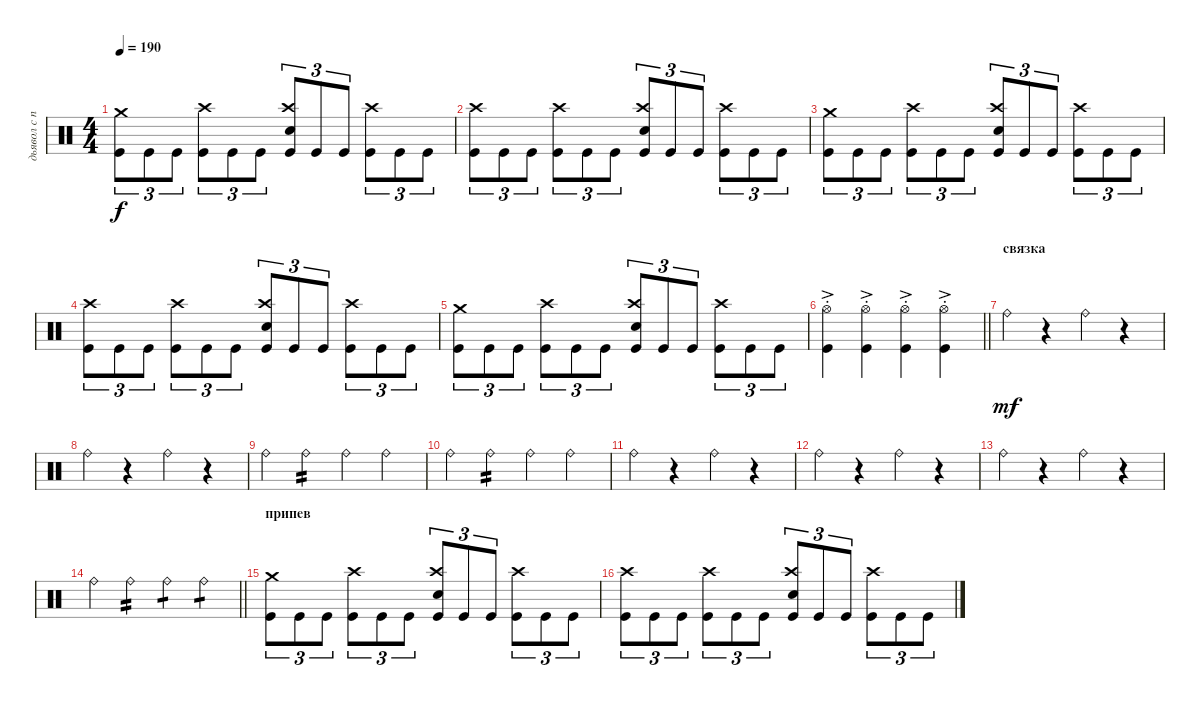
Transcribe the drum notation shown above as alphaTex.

\track ("дьявол с палками" "дьявол с п") {instrument percussion}
\staff {score}
\articulation defaults
\ts (4 4)
\tempo 190
\clef neutral
\ks c
("Kick (hit)" "Crash medium (hit)").8{tu (3 2) dy f} "Kick (hit)".8{tu (3 2)} "Kick (hit)".8{tu (3 2)} ("Kick (hit)" "Crash high (hit)").8{tu (3 2)} "Kick (hit)".8{tu (3 2)} "Kick (hit)".8{tu (3 2)} ("Kick (hit)" "Snare (hit) 2" "Crash high (hit)").8{tu (3 2)} "Kick (hit)".8{tu (3 2)} "Kick (hit)".8{tu (3 2)} ("Kick (hit)" "Crash high (hit)").8{tu (3 2)} "Kick (hit)".8{tu (3 2)} "Kick (hit)".8{tu (3 2)} |
("Kick (hit)" "Crash high (hit)").8{tu (3 2)} "Kick (hit)".8{tu (3 2)} "Kick (hit)".8{tu (3 2)} ("Kick (hit)" "Crash high (hit)").8{tu (3 2)} "Kick (hit)".8{tu (3 2)} "Kick (hit)".8{tu (3 2)} ("Kick (hit)" "Snare (hit) 2" "Crash high (hit)").8{tu (3 2)} "Kick (hit)".8{tu (3 2)} "Kick (hit)".8{tu (3 2)} ("Kick (hit)" "Crash high (hit)").8{tu (3 2)} "Kick (hit)".8{tu (3 2)} "Kick (hit)".8{tu (3 2)} |
("Kick (hit)" "Crash medium (hit)").8{tu (3 2)} "Kick (hit)".8{tu (3 2)} "Kick (hit)".8{tu (3 2)} ("Kick (hit)" "Crash high (hit)").8{tu (3 2)} "Kick (hit)".8{tu (3 2)} "Kick (hit)".8{tu (3 2)} ("Kick (hit)" "Snare (hit) 2" "Crash high (hit)").8{tu (3 2)} "Kick (hit)".8{tu (3 2)} "Kick (hit)".8{tu (3 2)} ("Kick (hit)" "Crash high (hit)").8{tu (3 2)} "Kick (hit)".8{tu (3 2)} "Kick (hit)".8{tu (3 2)} |
("Kick (hit)" "Crash high (hit)").8{tu (3 2)} "Kick (hit)".8{tu (3 2)} "Kick (hit)".8{tu (3 2)} ("Kick (hit)" "Crash high (hit)").8{tu (3 2)} "Kick (hit)".8{tu (3 2)} "Kick (hit)".8{tu (3 2)} ("Kick (hit)" "Snare (hit) 2" "Crash high (hit)").8{tu (3 2)} "Kick (hit)".8{tu (3 2)} "Kick (hit)".8{tu (3 2)} ("Kick (hit)" "Crash high (hit)").8{tu (3 2)} "Kick (hit)".8{tu (3 2)} "Kick (hit)".8{tu (3 2)} |
("Kick (hit)" "Crash medium (hit)").8{tu (3 2)} "Kick (hit)".8{tu (3 2)} "Kick (hit)".8{tu (3 2)} ("Kick (hit)" "Crash high (hit)").8{tu (3 2)} "Kick (hit)".8{tu (3 2)} "Kick (hit)".8{tu (3 2)} ("Kick (hit)" "Snare (hit) 2" "Crash high (hit)").8{tu (3 2)} "Kick (hit)".8{tu (3 2)} "Kick (hit)".8{tu (3 2)} ("Kick (hit)" "Crash high (hit)").8{tu (3 2)} "Kick (hit)".8{tu (3 2)} "Kick (hit)".8{tu (3 2)} |
\barLineRight lightlight
("Kick (hit)" "Hi-Hat (open)"{ac st}).4 ("Kick (hit)" "Hi-Hat (open)"{ac st}).4 ("Kick (hit)" "Hi-Hat (open)"{ac st}).4 ("Kick (hit)" "Hi-Hat (open)"{ac st}).4 |
\section ("" "связка")
"Ride (bell)".4{dy mf} r.4 "Ride (bell)".4 r.4 |
"Ride (bell)".4 r.4 "Ride (bell)".4 r.4 |
"Ride (bell)".4 "Ride (bell)".4{tp 2} "Ride (bell)".4 "Ride (bell)".4 |
"Ride (bell)".4 "Ride (bell)".4{tp 2} "Ride (bell)".4 "Ride (bell)".4 |
"Ride (bell)".4 r.4 "Ride (bell)".4 r.4 |
"Ride (bell)".4 r.4 "Ride (bell)".4 r.4 |
"Ride (bell)".4 r.4 "Ride (bell)".4 r.4 |
\barLineRight lightlight "Ride (bell)".4 "Ride (bell)".4{tp 2} "Ride (bell)".4{tp 1} "Ride (bell)".4{tp 1}
|
\section ("" "припев")
("Kick (hit)" "Crash medium (hit)").8{tu (3 2)} "Kick (hit)".8{tu (3 2)} "Kick (hit)".8{tu (3 2)} ("Kick (hit)" "Crash high (hit)").8{tu (3 2)} "Kick (hit)".8{tu (3 2)} "Kick (hit)".8{tu (3 2)} ("Kick (hit)" "Snare (hit) 2" "Crash high (hit)").8{tu (3 2)} "Kick (hit)".8{tu (3 2)} "Kick (hit)".8{tu (3 2)} ("Kick (hit)" "Crash high (hit)").8{tu (3 2)} "Kick (hit)".8{tu (3 2)} "Kick (hit)".8{tu (3 2)} |
("Kick (hit)" "Crash high (hit)").8{tu (3 2)} "Kick (hit)".8{tu (3 2)} "Kick (hit)".8{tu (3 2)} ("Kick (hit)" "Crash high (hit)").8{tu (3 2)} "Kick (hit)".8{tu (3 2)} "Kick (hit)".8{tu (3 2)} ("Kick (hit)" "Snare (hit) 2" "Crash high (hit)").8{tu (3 2)} "Kick (hit)".8{tu (3 2)} "Kick (hit)".8{tu (3 2)} ("Kick (hit)" "Crash high (hit)").8{tu (3 2)} "Kick (hit)".8{tu (3 2)} "Kick (hit)".8{tu (3 2)}
